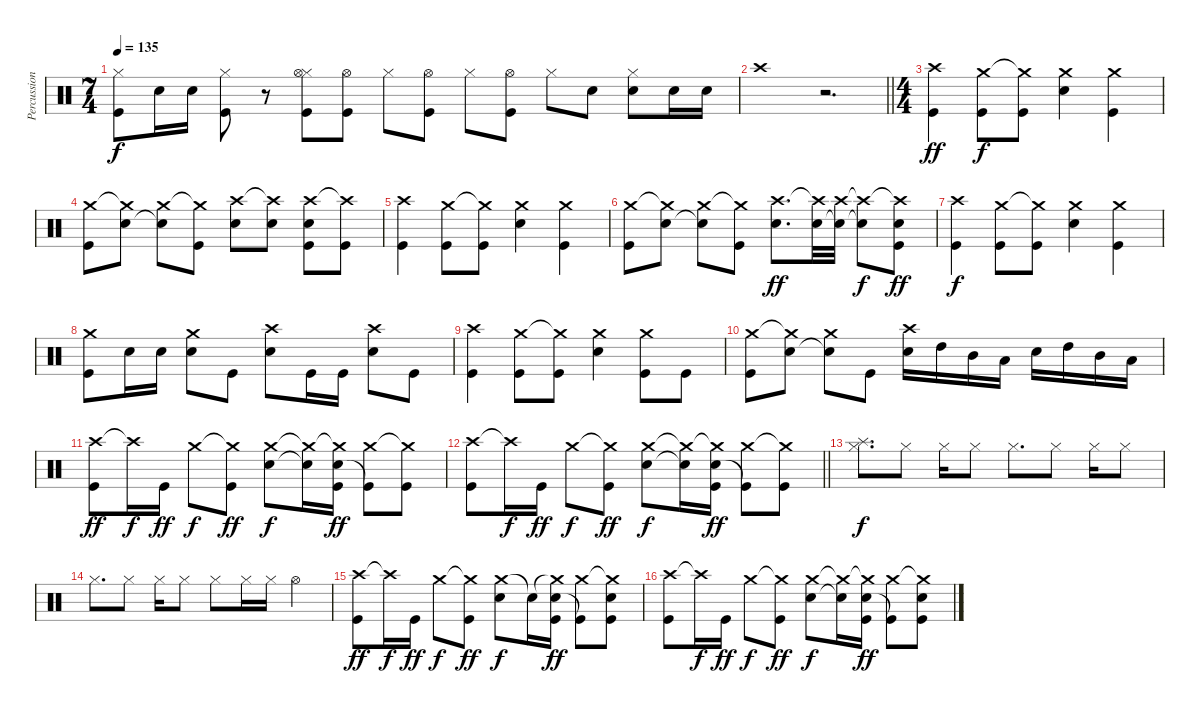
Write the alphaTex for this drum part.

\track ("Percussion" "Percussion") {instrument percussion}
\staff {score}
\articulation defaults
\ts (7 4)
\tempo 135
\clef neutral
\ks c
("Hi-Hat (closed)" "Kick (hit)").8{dy f} "Electric Snare (hit)".16 "Electric Snare (hit)".16 ("Hi-Hat (closed)" "Kick (hit)").8 r.8 ("Hi-Hat (closed)" "Hi-Hat (open)" "Kick (hit)").8 ("Hi-Hat (open)" "Kick (hit)").8 "Hi-Hat (closed)".8 ("Hi-Hat (open)" "Kick (hit)").8 "Hi-Hat (closed)".8 ("Hi-Hat (open)" "Kick (hit)").8 "Hi-Hat (closed)".8 "Hand Clap (hit)".8 ("Hi-Hat (closed)" "Hand Clap (hit)").8 "Electric Snare (hit)".16 "Electric Snare (hit)".16 |
\barLineRight lightlight "Crash high (hit)".1
r.2{d} |
\ts (4 4)
("Crash high (hit)" "Kick (hit)").4{dy ff} ("Crash medium (hit)" "Kick (hit)").8{dy f} ("Crash medium (hit)"{t} "Kick (hit)").8 ("Crash medium (hit)" "Electric Snare (hit)").4 ("Crash medium (hit)" "Kick (hit)").4 |
("Crash medium (hit)" "Kick (hit)").8 ("Crash medium (hit)"{t} "Electric Snare (hit)").8 ("Crash medium (hit)" "Electric Snare (hit)"{t}).8 ("Crash medium (hit)"{t} "Kick (hit)").8 ("Crash high (hit)" "Electric Snare (hit)").8 ("Crash high (hit)"{t} "Electric Snare (hit)").8 ("Crash high (hit)" "Electric Snare (hit)" "Kick (hit)").8 ("Crash high (hit)"{t} "Kick (hit)").8 |
("Crash high (hit)" "Kick (hit)").4 ("Crash medium (hit)" "Kick (hit)").8 ("Crash medium (hit)"{t} "Kick (hit)").8 ("Crash medium (hit)" "Electric Snare (hit)").4 ("Crash medium (hit)" "Kick (hit)").4 |
("Crash medium (hit)" "Kick (hit)").8 ("Crash medium (hit)"{t} "Electric Snare (hit)").8 ("Crash medium (hit)" "Electric Snare (hit)"{t}).8 ("Crash medium (hit)"{t} "Kick (hit)").8 ("Crash high (hit)" "Electric Snare (hit)").8{d dy ff} ("Crash high (hit)"{t} "Electric Snare (hit)").32 ("Crash high (hit)" "Electric Snare (hit)"{t}).32 ("Crash high (hit)"{t} "Electric Snare (hit)"{t}).8{dy f} ("Crash high (hit)"{t} "Electric Snare (hit)" "Kick (hit)").8{dy ff} |
("Crash high (hit)" "Kick (hit)").4{dy f} ("Crash medium (hit)" "Kick (hit)").8 ("Crash medium (hit)"{t} "Kick (hit)").8 ("Crash medium (hit)" "Electric Snare (hit)").4 ("Crash medium (hit)" "Kick (hit)").4 |
("Crash medium (hit)" "Kick (hit)").8 "Electric Snare (hit)".16 "Electric Snare (hit)".16 ("Crash medium (hit)" "Electric Snare (hit)").8 "Kick (hit)".8 ("Crash high (hit)" "Electric Snare (hit)").8 "Kick (hit)".16 "Kick (hit)".16 ("Crash high (hit)" "Electric Snare (hit)").8 "Kick (hit)".8 |
("Crash high (hit)" "Kick (hit)").4 ("Crash medium (hit)" "Kick (hit)").8 ("Crash medium (hit)"{t} "Kick (hit)").8 ("Crash medium (hit)" "Electric Snare (hit)").4 ("Crash medium (hit)" "Kick (hit)").8 "Kick (hit)".8 |
("Crash medium (hit)" "Kick (hit)").8 ("Crash medium (hit)"{t} "Electric Snare (hit)").8 ("Crash medium (hit)" "Electric Snare (hit)"{t}).8 "Kick (hit)".8 ("Crash high (hit)" "Electric Snare (hit)").16 "High Tom (hit)".16 "Mid Tom (hit)".16 "Low Tom (hit)".16 "Electric Snare (hit)".16 "High Tom (hit)".16 "Mid Tom (hit)".16 "Low Tom (hit)".16 |
("Crash high (hit)" "Kick (hit)").8{dy ff} "Crash high (hit)"{t}.16{dy f} "Kick (hit)".16{dy ff} "Crash medium (hit)".8{dy f} ("Crash medium (hit)"{t} "Kick (hit)").8{dy ff} ("Crash medium (hit)" "Electric Snare (hit)").8{dy f} ("Crash medium (hit)"{t} "Electric Snare (hit)"{t}).16 ("Crash medium (hit)"{t} "Electric Snare (hit)" "Kick (hit)").16{dy ff} ("Crash medium (hit)" "Kick (hit)"{t}).8 ("Crash medium (hit)"{t} "Kick (hit)").8 |
\barLineRight lightlight
("Crash high (hit)" "Kick (hit)").8 "Crash high (hit)"{t}.16{dy f} "Kick (hit)".16{dy ff} "Crash medium (hit)".8{dy f} ("Crash medium (hit)"{t} "Kick (hit)").8{dy ff} ("Crash medium (hit)" "Electric Snare (hit)").8{dy f} ("Crash medium (hit)"{t} "Electric Snare (hit)"{t}).16 ("Crash medium (hit)"{t} "Electric Snare (hit)" "Kick (hit)").16{dy ff} ("Crash medium (hit)" "Kick (hit)"{t}).8 ("Crash medium (hit)"{t} "Kick (hit)").8 |
("Splash (hit)" "Hi-Hat (closed)").8{d dy f} "Hi-Hat (closed)".8 "Hi-Hat (closed)".16 "Hi-Hat (closed)".8 "Hi-Hat (closed)".8{d} "Hi-Hat (closed)".8 "Hi-Hat (closed)".16 "Hi-Hat (closed)".8 |
"Hi-Hat (closed)".8{d} "Hi-Hat (closed)".8 "Hi-Hat (closed)".16 "Hi-Hat (closed)".8 "Hi-Hat (closed)".8 "Hi-Hat (closed)".16 "Hi-Hat (closed)".16 "Hi-Hat (open)".4 |
("Crash high (hit)" "Kick (hit)").8{dy ff} "Crash high (hit)"{t}.16{dy f} "Kick (hit)".16{dy ff} "Crash medium (hit)".8{dy f} ("Crash medium (hit)"{t} "Kick (hit)").8{dy ff} ("Crash medium (hit)" "Electric Snare (hit)").8{dy f} "Electric Snare (hit)"{t}.16 ("Crash medium (hit)"{t} "Electric Snare (hit)" "Kick (hit)").16{dy ff} ("Crash medium (hit)" "Kick (hit)"{t}).8 ("Crash medium (hit)"{t} "Electric Snare (hit)" "Kick (hit)").8 |
("Crash high (hit)" "Kick (hit)").8 "Crash high (hit)"{t}.16{dy f} "Kick (hit)".16{dy ff} "Crash medium (hit)".8{dy f} ("Crash medium (hit)"{t} "Kick (hit)").8{dy ff} ("Crash medium (hit)" "Electric Snare (hit)").8{dy f} ("Crash medium (hit)"{t} "Electric Snare (hit)"{t}).16 ("Crash medium (hit)"{t} "Electric Snare (hit)" "Kick (hit)").16{dy ff} ("Crash medium (hit)" "Kick (hit)"{t}).8 ("Crash medium (hit)"{t} "Electric Snare (hit)" "Kick (hit)").8
